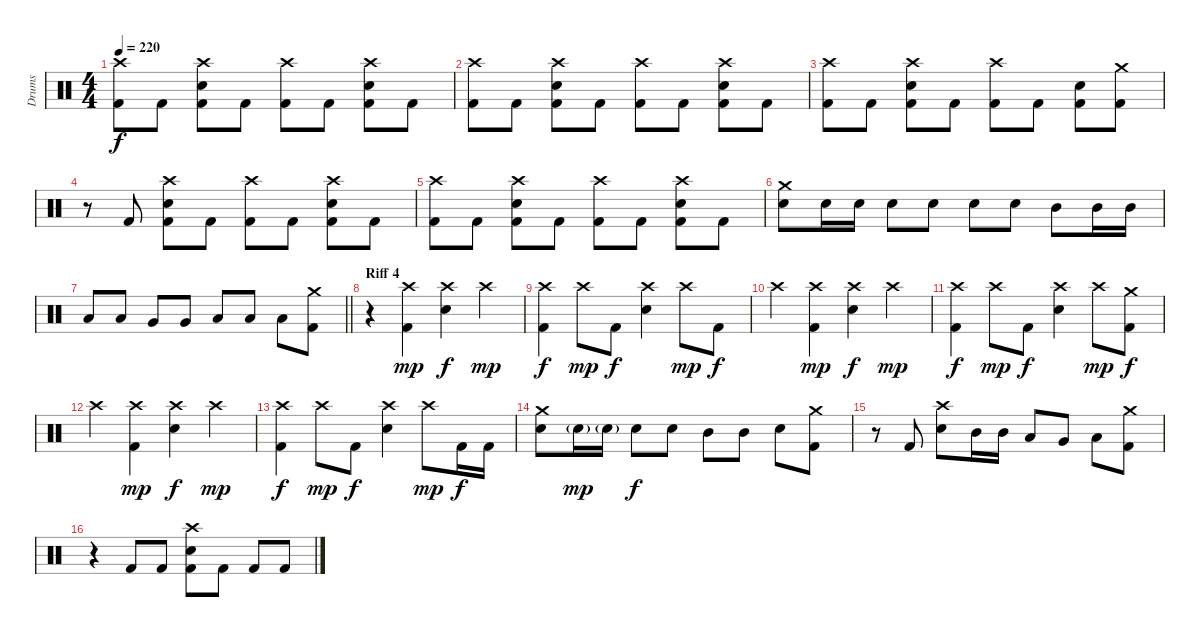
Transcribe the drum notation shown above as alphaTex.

\track ("Drums" "Drums") {instrument percussion}
\staff {score}
\articulation defaults
\ts (4 4)
\tempo 220
\clef neutral
\ks c
("Crash high (hit)" "Kick (hit) 2").8{dy f} "Kick (hit) 2".8 ("Electric Snare (hit)" "Crash high (hit)" "Kick (hit) 2").8 "Kick (hit) 2".8 ("Crash high (hit)" "Kick (hit) 2").8 "Kick (hit) 2".8 ("Electric Snare (hit)" "Crash high (hit)" "Kick (hit) 2").8 "Kick (hit) 2".8 |
("Crash high (hit)" "Kick (hit) 2").8 "Kick (hit) 2".8 ("Electric Snare (hit)" "Crash high (hit)" "Kick (hit) 2").8 "Kick (hit) 2".8 ("Crash high (hit)" "Kick (hit) 2").8 "Kick (hit) 2".8 ("Electric Snare (hit)" "Crash high (hit)" "Kick (hit) 2").8 "Kick (hit) 2".8 |
("Crash high (hit)" "Kick (hit) 2").8 "Kick (hit) 2".8 ("Electric Snare (hit)" "Crash high (hit)" "Kick (hit) 2").8 "Kick (hit) 2".8 ("Crash high (hit)" "Kick (hit) 2").8 "Kick (hit) 2".8 ("Electric Snare (hit)" "Kick (hit) 2").8 ("Crash medium (hit)" "Kick (hit) 2").8 |
r.8 "Kick (hit) 2".8 ("Crash high (hit)" "Electric Snare (hit)" "Kick (hit) 2").8 "Kick (hit) 2".8 ("Crash high (hit)" "Kick (hit) 2").8 "Kick (hit) 2".8 ("Electric Snare (hit)" "Crash high (hit)" "Kick (hit) 2").8 "Kick (hit) 2".8 |
("Crash high (hit)" "Kick (hit) 2").8 "Kick (hit) 2".8 ("Electric Snare (hit)" "Crash high (hit)" "Kick (hit) 2").8 "Kick (hit) 2".8 ("Crash high (hit)" "Kick (hit) 2").8 "Kick (hit) 2".8 ("Electric Snare (hit)" "Crash high (hit)" "Kick (hit) 2").8 "Kick (hit) 2".8 |
("Electric Snare (hit)" "Crash medium (hit)").8 "Electric Snare (hit)".16 "Electric Snare (hit)".16 "Electric Snare (hit)".8 "Electric Snare (hit)".8 "Electric Snare (hit)".8 "Electric Snare (hit)".8 "Mid Tom (hit)".8 "Mid Tom (hit)".16 "Mid Tom (hit)".16 |
\barLineRight lightlight "Low Tom (hit)".8 "Low Tom (hit)".8 "Very Low Tom (hit)".8 "Very Low Tom (hit)".8 "Low Floor Tom (hit)".8 "Low Floor Tom (hit)".8 "Low Floor Tom (hit)".8
("Kick (hit) 2" "Crash medium (hit)").8 |
\section ("" "Riff 4")
r.4 ("Kick (hit) 2" "Crash high (hit)").4{dy mp} ("Electric Snare (hit)" "Crash high (hit)").4{dy f} "Crash high (hit)".4{dy mp} |
("Crash high (hit)" "Kick (hit) 2").4{dy f} "Crash high (hit)".8{dy mp} "Kick (hit) 2".8{dy f} ("Electric Snare (hit)" "Crash high (hit)").4 "Crash high (hit)".8{dy mp} "Kick (hit) 2".8{dy f} |
"Crash high (hit)".4 ("Kick (hit) 2" "Crash high (hit)").4{dy mp} ("Electric Snare (hit)" "Crash high (hit)").4{dy f} "Crash high (hit)".4{dy mp} |
("Crash high (hit)" "Kick (hit) 2").4{dy f} "Crash high (hit)".8{dy mp} "Kick (hit) 2".8{dy f} ("Electric Snare (hit)" "Crash high (hit)").4 "Crash high (hit)".8{dy mp} ("Kick (hit) 2" "Crash medium (hit)").8{dy f} |
"Crash high (hit)".4 ("Kick (hit) 2" "Crash high (hit)").4{dy mp} ("Electric Snare (hit)" "Crash high (hit)").4{dy f} "Crash high (hit)".4{dy mp} |
("Crash high (hit)" "Kick (hit) 2").4{dy f} "Crash high (hit)".8{dy mp} "Kick (hit) 2".8{dy f} ("Electric Snare (hit)" "Crash high (hit)").4 "Crash high (hit)".8{dy mp} "Kick (hit) 2".16{dy f} "Kick (hit) 2".16 |
("Electric Snare (hit)" "Crash medium (hit)").8 "Electric Snare (hit)"{g}.16{dy mp} "Electric Snare (hit)"{g}.16 "Electric Snare (hit)".8{dy f} "Electric Snare (hit)".8 "Mid Tom (hit)".8 "Mid Tom (hit)".8 "Electric Snare (hit)".8 ("Kick (hit) 2" "Crash medium (hit)").8 |
r.8 "Kick (hit) 2".8 ("Electric Snare (hit)" "Crash high (hit)").8 "Mid Tom (hit)".16 "Mid Tom (hit)".16 "Low Tom (hit)".8 "Very Low Tom (hit)".8 "Low Floor Tom (hit)".8 ("Crash medium (hit)" "Kick (hit) 2").8 |
r.4 "Kick (hit) 2".8 "Kick (hit) 2".8 ("Crash high (hit)" "Kick (hit) 2" "Electric Snare (hit)").8 "Kick (hit) 2".8 "Kick (hit) 2".8 "Kick (hit) 2".8
